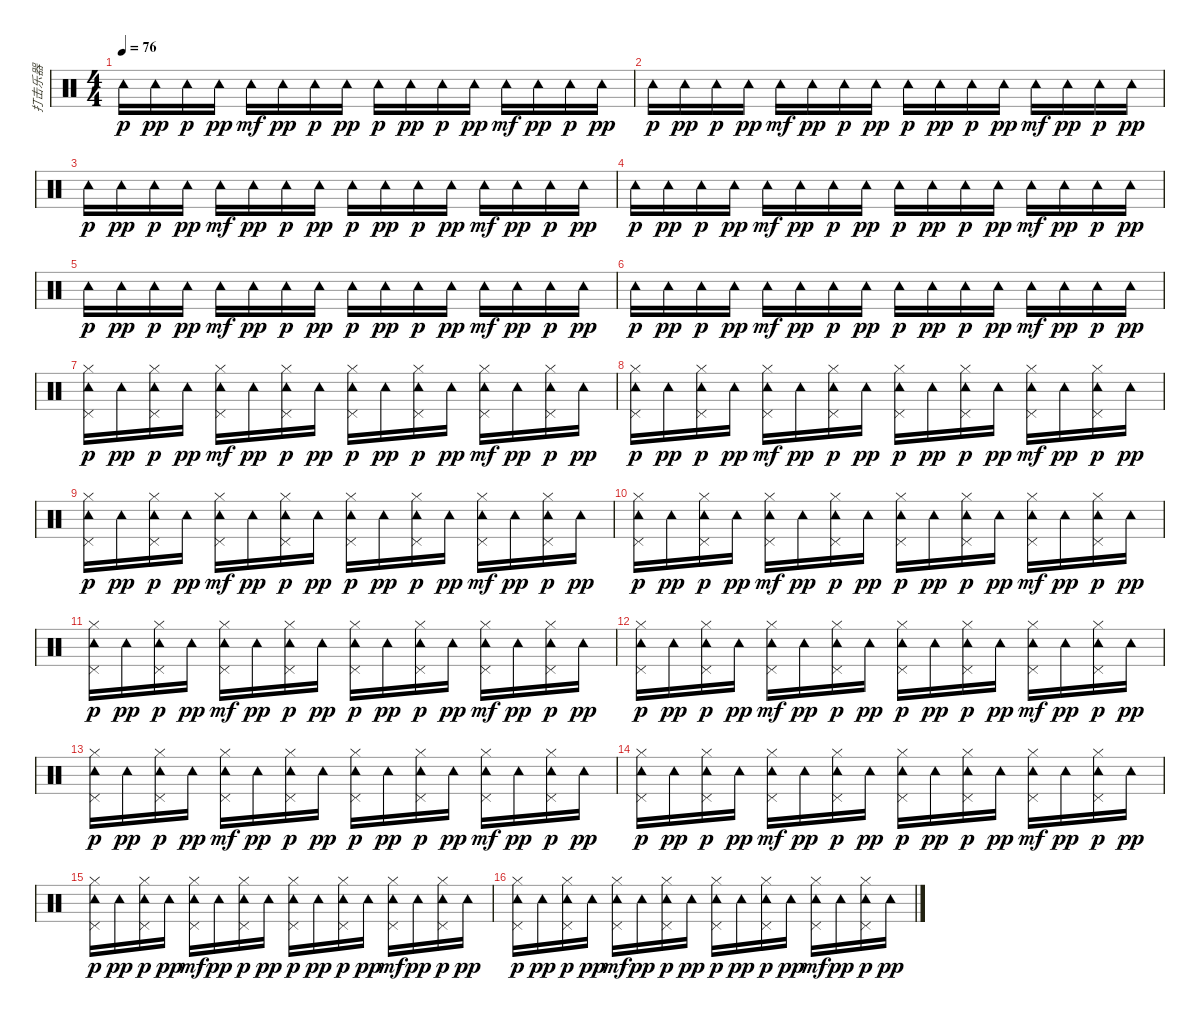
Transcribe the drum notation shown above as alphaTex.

\track ("打击乐器" "打击乐器") {instrument percussion}
\staff {score}
\articulation defaults
\ts (4 4)
\tempo 76
\clef neutral
\ks c "Tambourine (hit)".16{dy p} "Tambourine (hit)".16{dy pp} "Tambourine (hit)".16{dy p} "Tambourine (hit)".16{dy pp} "Tambourine (hit)".16{dy mf} "Tambourine (hit)".16{dy pp} "Tambourine (hit)".16{dy p} "Tambourine (hit)".16{dy pp} "Tambourine (hit)".16{dy p} "Tambourine (hit)".16{dy pp} "Tambourine (hit)".16{dy p} "Tambourine (hit)".16{dy pp} "Tambourine (hit)".16{dy mf} "Tambourine (hit)".16{dy pp} "Tambourine (hit)".16{dy p} "Tambourine (hit)".16{dy pp}
|
"Tambourine (hit)".16{dy p} "Tambourine (hit)".16{dy pp} "Tambourine (hit)".16{dy p} "Tambourine (hit)".16{dy pp} "Tambourine (hit)".16{dy mf} "Tambourine (hit)".16{dy pp} "Tambourine (hit)".16{dy p} "Tambourine (hit)".16{dy pp} "Tambourine (hit)".16{dy p} "Tambourine (hit)".16{dy pp} "Tambourine (hit)".16{dy p} "Tambourine (hit)".16{dy pp} "Tambourine (hit)".16{dy mf} "Tambourine (hit)".16{dy pp} "Tambourine (hit)".16{dy p} "Tambourine (hit)".16{dy pp} |
"Tambourine (hit)".16{dy p} "Tambourine (hit)".16{dy pp} "Tambourine (hit)".16{dy p} "Tambourine (hit)".16{dy pp} "Tambourine (hit)".16{dy mf} "Tambourine (hit)".16{dy pp} "Tambourine (hit)".16{dy p} "Tambourine (hit)".16{dy pp} "Tambourine (hit)".16{dy p} "Tambourine (hit)".16{dy pp} "Tambourine (hit)".16{dy p} "Tambourine (hit)".16{dy pp} "Tambourine (hit)".16{dy mf} "Tambourine (hit)".16{dy pp} "Tambourine (hit)".16{dy p} "Tambourine (hit)".16{dy pp} |
"Tambourine (hit)".16{dy p} "Tambourine (hit)".16{dy pp} "Tambourine (hit)".16{dy p} "Tambourine (hit)".16{dy pp} "Tambourine (hit)".16{dy mf} "Tambourine (hit)".16{dy pp} "Tambourine (hit)".16{dy p} "Tambourine (hit)".16{dy pp} "Tambourine (hit)".16{dy p} "Tambourine (hit)".16{dy pp} "Tambourine (hit)".16{dy p} "Tambourine (hit)".16{dy pp} "Tambourine (hit)".16{dy mf} "Tambourine (hit)".16{dy pp} "Tambourine (hit)".16{dy p} "Tambourine (hit)".16{dy pp} |
"Tambourine (hit)".16{dy p} "Tambourine (hit)".16{dy pp} "Tambourine (hit)".16{dy p} "Tambourine (hit)".16{dy pp} "Tambourine (hit)".16{dy mf} "Tambourine (hit)".16{dy pp} "Tambourine (hit)".16{dy p} "Tambourine (hit)".16{dy pp} "Tambourine (hit)".16{dy p} "Tambourine (hit)".16{dy pp} "Tambourine (hit)".16{dy p} "Tambourine (hit)".16{dy pp} "Tambourine (hit)".16{dy mf} "Tambourine (hit)".16{dy pp} "Tambourine (hit)".16{dy p} "Tambourine (hit)".16{dy pp} |
"Tambourine (hit)".16{dy p} "Tambourine (hit)".16{dy pp} "Tambourine (hit)".16{dy p} "Tambourine (hit)".16{dy pp} "Tambourine (hit)".16{dy mf} "Tambourine (hit)".16{dy pp} "Tambourine (hit)".16{dy p} "Tambourine (hit)".16{dy pp} "Tambourine (hit)".16{dy p} "Tambourine (hit)".16{dy pp} "Tambourine (hit)".16{dy p} "Tambourine (hit)".16{dy pp} "Tambourine (hit)".16{dy mf} "Tambourine (hit)".16{dy pp} "Tambourine (hit)".16{dy p} "Tambourine (hit)".16{dy pp} |
("Tambourine (hit)" "Pedal Hi-Hat (hit)" "Hi-Hat (closed)").16{dy p} "Tambourine (hit)".16{dy pp} ("Tambourine (hit)" "Pedal Hi-Hat (hit)" "Hi-Hat (closed)").16{dy p} "Tambourine (hit)".16{dy pp} ("Tambourine (hit)" "Pedal Hi-Hat (hit)" "Hi-Hat (closed)").16{dy mf} "Tambourine (hit)".16{dy pp} ("Tambourine (hit)" "Pedal Hi-Hat (hit)" "Hi-Hat (closed)").16{dy p} "Tambourine (hit)".16{dy pp} ("Tambourine (hit)" "Pedal Hi-Hat (hit)" "Hi-Hat (closed)").16{dy p} "Tambourine (hit)".16{dy pp} ("Tambourine (hit)" "Pedal Hi-Hat (hit)" "Hi-Hat (closed)").16{dy p} "Tambourine (hit)".16{dy pp} ("Tambourine (hit)" "Pedal Hi-Hat (hit)" "Hi-Hat (closed)").16{dy mf} "Tambourine (hit)".16{dy pp} ("Tambourine (hit)" "Pedal Hi-Hat (hit)" "Hi-Hat (closed)").16{dy p} "Tambourine (hit)".16{dy pp} |
("Tambourine (hit)" "Pedal Hi-Hat (hit)" "Hi-Hat (closed)").16{dy p} "Tambourine (hit)".16{dy pp} ("Tambourine (hit)" "Pedal Hi-Hat (hit)" "Hi-Hat (closed)").16{dy p} "Tambourine (hit)".16{dy pp} ("Tambourine (hit)" "Pedal Hi-Hat (hit)" "Hi-Hat (closed)").16{dy mf} "Tambourine (hit)".16{dy pp} ("Tambourine (hit)" "Pedal Hi-Hat (hit)" "Hi-Hat (closed)").16{dy p} "Tambourine (hit)".16{dy pp} ("Tambourine (hit)" "Pedal Hi-Hat (hit)" "Hi-Hat (closed)").16{dy p} "Tambourine (hit)".16{dy pp} ("Tambourine (hit)" "Pedal Hi-Hat (hit)" "Hi-Hat (closed)").16{dy p} "Tambourine (hit)".16{dy pp} ("Tambourine (hit)" "Pedal Hi-Hat (hit)" "Hi-Hat (closed)").16{dy mf} "Tambourine (hit)".16{dy pp} ("Tambourine (hit)" "Pedal Hi-Hat (hit)" "Hi-Hat (closed)").16{dy p} "Tambourine (hit)".16{dy pp} |
("Tambourine (hit)" "Pedal Hi-Hat (hit)" "Hi-Hat (closed)").16{dy p} "Tambourine (hit)".16{dy pp} ("Tambourine (hit)" "Pedal Hi-Hat (hit)" "Hi-Hat (closed)").16{dy p} "Tambourine (hit)".16{dy pp} ("Tambourine (hit)" "Pedal Hi-Hat (hit)" "Hi-Hat (closed)").16{dy mf} "Tambourine (hit)".16{dy pp} ("Tambourine (hit)" "Pedal Hi-Hat (hit)" "Hi-Hat (closed)").16{dy p} "Tambourine (hit)".16{dy pp} ("Tambourine (hit)" "Pedal Hi-Hat (hit)" "Hi-Hat (closed)").16{dy p} "Tambourine (hit)".16{dy pp} ("Tambourine (hit)" "Pedal Hi-Hat (hit)" "Hi-Hat (closed)").16{dy p} "Tambourine (hit)".16{dy pp} ("Tambourine (hit)" "Pedal Hi-Hat (hit)" "Hi-Hat (closed)").16{dy mf} "Tambourine (hit)".16{dy pp} ("Tambourine (hit)" "Pedal Hi-Hat (hit)" "Hi-Hat (closed)").16{dy p} "Tambourine (hit)".16{dy pp} |
("Tambourine (hit)" "Pedal Hi-Hat (hit)" "Hi-Hat (closed)").16{dy p} "Tambourine (hit)".16{dy pp} ("Tambourine (hit)" "Pedal Hi-Hat (hit)" "Hi-Hat (closed)").16{dy p} "Tambourine (hit)".16{dy pp} ("Tambourine (hit)" "Pedal Hi-Hat (hit)" "Hi-Hat (closed)").16{dy mf} "Tambourine (hit)".16{dy pp} ("Tambourine (hit)" "Pedal Hi-Hat (hit)" "Hi-Hat (closed)").16{dy p} "Tambourine (hit)".16{dy pp} ("Tambourine (hit)" "Pedal Hi-Hat (hit)" "Hi-Hat (closed)").16{dy p} "Tambourine (hit)".16{dy pp} ("Tambourine (hit)" "Pedal Hi-Hat (hit)" "Hi-Hat (closed)").16{dy p} "Tambourine (hit)".16{dy pp} ("Tambourine (hit)" "Pedal Hi-Hat (hit)" "Hi-Hat (closed)").16{dy mf} "Tambourine (hit)".16{dy pp} ("Tambourine (hit)" "Pedal Hi-Hat (hit)" "Hi-Hat (closed)").16{dy p} "Tambourine (hit)".16{dy pp} |
("Tambourine (hit)" "Pedal Hi-Hat (hit)" "Hi-Hat (closed)").16{dy p} "Tambourine (hit)".16{dy pp} ("Tambourine (hit)" "Pedal Hi-Hat (hit)" "Hi-Hat (closed)").16{dy p} "Tambourine (hit)".16{dy pp} ("Tambourine (hit)" "Pedal Hi-Hat (hit)" "Hi-Hat (closed)").16{dy mf} "Tambourine (hit)".16{dy pp} ("Tambourine (hit)" "Pedal Hi-Hat (hit)" "Hi-Hat (closed)").16{dy p} "Tambourine (hit)".16{dy pp} ("Tambourine (hit)" "Pedal Hi-Hat (hit)" "Hi-Hat (closed)").16{dy p} "Tambourine (hit)".16{dy pp} ("Tambourine (hit)" "Pedal Hi-Hat (hit)" "Hi-Hat (closed)").16{dy p} "Tambourine (hit)".16{dy pp} ("Tambourine (hit)" "Pedal Hi-Hat (hit)" "Hi-Hat (closed)").16{dy mf} "Tambourine (hit)".16{dy pp} ("Tambourine (hit)" "Pedal Hi-Hat (hit)" "Hi-Hat (closed)").16{dy p} "Tambourine (hit)".16{dy pp} |
("Tambourine (hit)" "Pedal Hi-Hat (hit)" "Hi-Hat (closed)").16{dy p} "Tambourine (hit)".16{dy pp} ("Tambourine (hit)" "Pedal Hi-Hat (hit)" "Hi-Hat (closed)").16{dy p} "Tambourine (hit)".16{dy pp} ("Tambourine (hit)" "Pedal Hi-Hat (hit)" "Hi-Hat (closed)").16{dy mf} "Tambourine (hit)".16{dy pp} ("Tambourine (hit)" "Pedal Hi-Hat (hit)" "Hi-Hat (closed)").16{dy p} "Tambourine (hit)".16{dy pp} ("Tambourine (hit)" "Pedal Hi-Hat (hit)" "Hi-Hat (closed)").16{dy p} "Tambourine (hit)".16{dy pp} ("Tambourine (hit)" "Pedal Hi-Hat (hit)" "Hi-Hat (closed)").16{dy p} "Tambourine (hit)".16{dy pp} ("Tambourine (hit)" "Pedal Hi-Hat (hit)" "Hi-Hat (closed)").16{dy mf} "Tambourine (hit)".16{dy pp} ("Tambourine (hit)" "Pedal Hi-Hat (hit)" "Hi-Hat (closed)").16{dy p} "Tambourine (hit)".16{dy pp} |
("Tambourine (hit)" "Pedal Hi-Hat (hit)" "Hi-Hat (closed)").16{dy p} "Tambourine (hit)".16{dy pp} ("Tambourine (hit)" "Pedal Hi-Hat (hit)" "Hi-Hat (closed)").16{dy p} "Tambourine (hit)".16{dy pp} ("Tambourine (hit)" "Pedal Hi-Hat (hit)" "Hi-Hat (closed)").16{dy mf} "Tambourine (hit)".16{dy pp} ("Tambourine (hit)" "Pedal Hi-Hat (hit)" "Hi-Hat (closed)").16{dy p} "Tambourine (hit)".16{dy pp} ("Tambourine (hit)" "Pedal Hi-Hat (hit)" "Hi-Hat (closed)").16{dy p} "Tambourine (hit)".16{dy pp} ("Tambourine (hit)" "Pedal Hi-Hat (hit)" "Hi-Hat (closed)").16{dy p} "Tambourine (hit)".16{dy pp} ("Tambourine (hit)" "Pedal Hi-Hat (hit)" "Hi-Hat (closed)").16{dy mf} "Tambourine (hit)".16{dy pp} ("Tambourine (hit)" "Pedal Hi-Hat (hit)" "Hi-Hat (closed)").16{dy p} "Tambourine (hit)".16{dy pp} |
("Tambourine (hit)" "Pedal Hi-Hat (hit)" "Hi-Hat (closed)").16{dy p} "Tambourine (hit)".16{dy pp} ("Tambourine (hit)" "Pedal Hi-Hat (hit)" "Hi-Hat (closed)").16{dy p} "Tambourine (hit)".16{dy pp} ("Tambourine (hit)" "Pedal Hi-Hat (hit)" "Hi-Hat (closed)").16{dy mf} "Tambourine (hit)".16{dy pp} ("Tambourine (hit)" "Pedal Hi-Hat (hit)" "Hi-Hat (closed)").16{dy p} "Tambourine (hit)".16{dy pp} ("Tambourine (hit)" "Pedal Hi-Hat (hit)" "Hi-Hat (closed)").16{dy p} "Tambourine (hit)".16{dy pp} ("Tambourine (hit)" "Pedal Hi-Hat (hit)" "Hi-Hat (closed)").16{dy p} "Tambourine (hit)".16{dy pp} ("Tambourine (hit)" "Pedal Hi-Hat (hit)" "Hi-Hat (closed)").16{dy mf} "Tambourine (hit)".16{dy pp} ("Tambourine (hit)" "Pedal Hi-Hat (hit)" "Hi-Hat (closed)").16{dy p} "Tambourine (hit)".16{dy pp} |
("Tambourine (hit)" "Pedal Hi-Hat (hit)" "Hi-Hat (closed)").16{dy p} "Tambourine (hit)".16{dy pp} ("Tambourine (hit)" "Pedal Hi-Hat (hit)" "Hi-Hat (closed)").16{dy p} "Tambourine (hit)".16{dy pp} ("Tambourine (hit)" "Pedal Hi-Hat (hit)" "Hi-Hat (closed)").16{dy mf} "Tambourine (hit)".16{dy pp} ("Tambourine (hit)" "Pedal Hi-Hat (hit)" "Hi-Hat (closed)").16{dy p} "Tambourine (hit)".16{dy pp} ("Tambourine (hit)" "Pedal Hi-Hat (hit)" "Hi-Hat (closed)").16{dy p} "Tambourine (hit)".16{dy pp} ("Tambourine (hit)" "Pedal Hi-Hat (hit)" "Hi-Hat (closed)").16{dy p} "Tambourine (hit)".16{dy pp} ("Tambourine (hit)" "Pedal Hi-Hat (hit)" "Hi-Hat (closed)").16{dy mf} "Tambourine (hit)".16{dy pp} ("Tambourine (hit)" "Pedal Hi-Hat (hit)" "Hi-Hat (closed)").16{dy p} "Tambourine (hit)".16{dy pp} |
("Tambourine (hit)" "Pedal Hi-Hat (hit)" "Hi-Hat (closed)").16{dy p} "Tambourine (hit)".16{dy pp} ("Tambourine (hit)" "Pedal Hi-Hat (hit)" "Hi-Hat (closed)").16{dy p} "Tambourine (hit)".16{dy pp} ("Tambourine (hit)" "Pedal Hi-Hat (hit)" "Hi-Hat (closed)").16{dy mf} "Tambourine (hit)".16{dy pp} ("Tambourine (hit)" "Pedal Hi-Hat (hit)" "Hi-Hat (closed)").16{dy p} "Tambourine (hit)".16{dy pp} ("Tambourine (hit)" "Pedal Hi-Hat (hit)" "Hi-Hat (closed)").16{dy p} "Tambourine (hit)".16{dy pp} ("Tambourine (hit)" "Pedal Hi-Hat (hit)" "Hi-Hat (closed)").16{dy p} "Tambourine (hit)".16{dy pp} ("Tambourine (hit)" "Pedal Hi-Hat (hit)" "Hi-Hat (closed)").16{dy mf} "Tambourine (hit)".16{dy pp} ("Tambourine (hit)" "Pedal Hi-Hat (hit)" "Hi-Hat (closed)").16{dy p} "Tambourine (hit)".16{dy pp}
